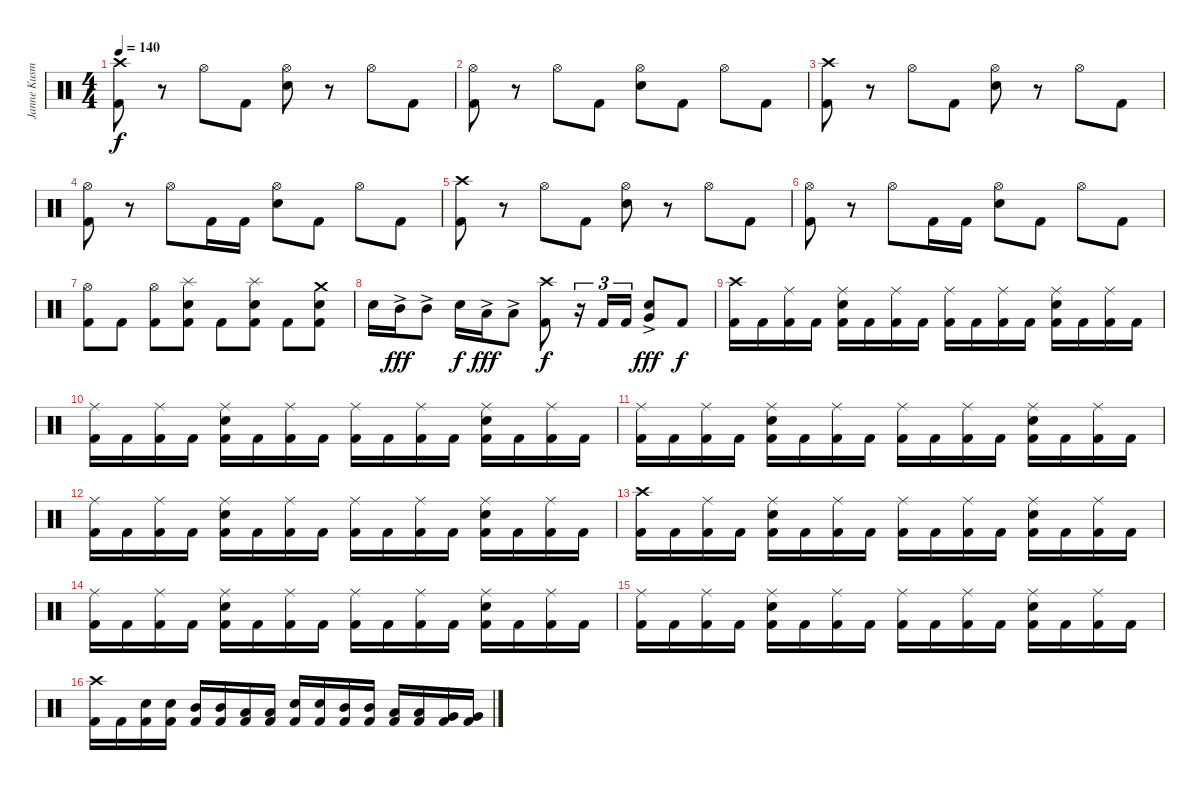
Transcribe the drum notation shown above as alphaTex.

\track ("Janne Kusmin" "Janne Kusm") {instrument percussion}
\staff {score}
\articulation defaults
\ts (4 4)
\tempo 140
\clef neutral
\ks c
("Crash high (hit)" "Kick (hit) 2").8{dy f} r.8 "Hi-Hat (open)".8 "Kick (hit) 2".8 ("Hi-Hat (open)" "Electric Snare (hit)").8 r.8 "Hi-Hat (open)".8 "Kick (hit) 2".8 |
("Hi-Hat (open)" "Kick (hit) 2").8 r.8 "Hi-Hat (open)".8 "Kick (hit) 2".8 ("Hi-Hat (open)" "Electric Snare (hit)").8 "Kick (hit) 2".8 "Hi-Hat (open)".8 "Kick (hit) 2".8 |
("Crash high (hit)" "Kick (hit) 2").8 r.8 "Hi-Hat (open)".8 "Kick (hit) 2".8 ("Hi-Hat (open)" "Electric Snare (hit)").8 r.8 "Hi-Hat (open)".8 "Kick (hit) 2".8 |
("Hi-Hat (open)" "Kick (hit) 2").8 r.8 "Hi-Hat (open)".8 "Kick (hit) 2".16 "Kick (hit) 2".16 ("Hi-Hat (open)" "Electric Snare (hit)").8 "Kick (hit) 2".8 "Hi-Hat (open)".8 "Kick (hit) 2".8 |
("Crash high (hit)" "Kick (hit) 2").8 r.8 "Hi-Hat (open)".8 "Kick (hit) 2".8 ("Hi-Hat (open)" "Electric Snare (hit)").8 r.8 "Hi-Hat (open)".8 "Kick (hit) 2".8 |
("Hi-Hat (open)" "Kick (hit) 2").8 r.8 "Hi-Hat (open)".8 "Kick (hit) 2".16 "Kick (hit) 2".16 ("Hi-Hat (open)" "Electric Snare (hit)").8 "Kick (hit) 2".8 "Hi-Hat (open)".8 "Kick (hit) 2".8 |
("Hi-Hat (open)" "Kick (hit) 2").8 "Kick (hit) 2".8 ("Hi-Hat (open)" "Kick (hit) 2").8 ("Splash (hit)" "Electric Snare (hit)" "Kick (hit) 2").8 "Kick (hit) 2".8 ("Splash (hit)" "Electric Snare (hit)" "Kick (hit) 2").8 "Kick (hit) 2".8 ("Crash medium (hit)" "Electric Snare (hit)" "Kick (hit) 2").8 |
"Electric Snare (hit)".16 "Mid Tom (hit)"{ac}.16{dy fff} "Mid Tom (hit)"{ac}.8 "Electric Snare (hit)".16{dy f} "Low Tom (hit)"{ac}.16{dy fff} "Low Tom (hit)"{ac}.8 ("Crash high (hit)" "Kick (hit) 2").8{dy f} r.16{tu (3 2)} "Kick (hit) 2".16{tu (3 2)} "Kick (hit) 2".16{tu (3 2)} ("Very Low Tom (hit)"{ac} "Electric Snare (hit)").8{dy fff} "Kick (hit) 2".8{dy f} |
("Crash high (hit)" "Kick (hit) 2").16 "Kick (hit) 2".16 ("Ride (middle)" "Kick (hit) 2").16 "Kick (hit) 2".16 ("Ride (middle)" "Electric Snare (hit)" "Kick (hit) 2").16 "Kick (hit) 2".16 ("Ride (middle)" "Kick (hit) 2").16 "Kick (hit) 2".16 ("Ride (middle)" "Kick (hit) 2").16 "Kick (hit) 2".16 ("Ride (middle)" "Kick (hit) 2").16 "Kick (hit) 2".16 ("Ride (middle)" "Electric Snare (hit)" "Kick (hit) 2").16 "Kick (hit) 2".16 ("Ride (middle)" "Kick (hit) 2").16 "Kick (hit) 2".16 |
("Ride (middle)" "Kick (hit) 2").16 "Kick (hit) 2".16 ("Ride (middle)" "Kick (hit) 2").16 "Kick (hit) 2".16 ("Ride (middle)" "Electric Snare (hit)" "Kick (hit) 2").16 "Kick (hit) 2".16 ("Ride (middle)" "Kick (hit) 2").16 "Kick (hit) 2".16 ("Ride (middle)" "Kick (hit) 2").16 "Kick (hit) 2".16 ("Ride (middle)" "Kick (hit) 2").16 "Kick (hit) 2".16 ("Ride (middle)" "Electric Snare (hit)" "Kick (hit) 2").16 "Kick (hit) 2".16 ("Ride (middle)" "Kick (hit) 2").16 "Kick (hit) 2".16 |
("Ride (middle)" "Kick (hit) 2").16 "Kick (hit) 2".16 ("Ride (middle)" "Kick (hit) 2").16 "Kick (hit) 2".16 ("Ride (middle)" "Electric Snare (hit)" "Kick (hit) 2").16 "Kick (hit) 2".16 ("Ride (middle)" "Kick (hit) 2").16 "Kick (hit) 2".16 ("Ride (middle)" "Kick (hit) 2").16 "Kick (hit) 2".16 ("Ride (middle)" "Kick (hit) 2").16 "Kick (hit) 2".16 ("Ride (middle)" "Electric Snare (hit)" "Kick (hit) 2").16 "Kick (hit) 2".16 ("Ride (middle)" "Kick (hit) 2").16 "Kick (hit) 2".16 |
("Ride (middle)" "Kick (hit) 2").16 "Kick (hit) 2".16 ("Ride (middle)" "Kick (hit) 2").16 "Kick (hit) 2".16 ("Ride (middle)" "Electric Snare (hit)" "Kick (hit) 2").16 "Kick (hit) 2".16 ("Ride (middle)" "Kick (hit) 2").16 "Kick (hit) 2".16 ("Ride (middle)" "Kick (hit) 2").16 "Kick (hit) 2".16 ("Ride (middle)" "Kick (hit) 2").16 "Kick (hit) 2".16 ("Ride (middle)" "Electric Snare (hit)" "Kick (hit) 2").16 "Kick (hit) 2".16 ("Ride (middle)" "Kick (hit) 2").16 "Kick (hit) 2".16 |
("Crash high (hit)" "Kick (hit) 2").16 "Kick (hit) 2".16 ("Ride (middle)" "Kick (hit) 2").16 "Kick (hit) 2".16 ("Ride (middle)" "Electric Snare (hit)" "Kick (hit) 2").16 "Kick (hit) 2".16 ("Ride (middle)" "Kick (hit) 2").16 "Kick (hit) 2".16 ("Ride (middle)" "Kick (hit) 2").16 "Kick (hit) 2".16 ("Ride (middle)" "Kick (hit) 2").16 "Kick (hit) 2".16 ("Ride (middle)" "Electric Snare (hit)" "Kick (hit) 2").16 "Kick (hit) 2".16 ("Ride (middle)" "Kick (hit) 2").16 "Kick (hit) 2".16 |
("Ride (middle)" "Kick (hit) 2").16 "Kick (hit) 2".16 ("Ride (middle)" "Kick (hit) 2").16 "Kick (hit) 2".16 ("Ride (middle)" "Electric Snare (hit)" "Kick (hit) 2").16 "Kick (hit) 2".16 ("Ride (middle)" "Kick (hit) 2").16 "Kick (hit) 2".16 ("Ride (middle)" "Kick (hit) 2").16 "Kick (hit) 2".16 ("Ride (middle)" "Kick (hit) 2").16 "Kick (hit) 2".16 ("Ride (middle)" "Electric Snare (hit)" "Kick (hit) 2").16 "Kick (hit) 2".16 ("Ride (middle)" "Kick (hit) 2").16 "Kick (hit) 2".16 |
("Ride (middle)" "Kick (hit) 2").16 "Kick (hit) 2".16 ("Ride (middle)" "Kick (hit) 2").16 "Kick (hit) 2".16 ("Ride (middle)" "Electric Snare (hit)" "Kick (hit) 2").16 "Kick (hit) 2".16 ("Ride (middle)" "Kick (hit) 2").16 "Kick (hit) 2".16 ("Ride (middle)" "Kick (hit) 2").16 "Kick (hit) 2".16 ("Ride (middle)" "Kick (hit) 2").16 "Kick (hit) 2".16 ("Ride (middle)" "Electric Snare (hit)" "Kick (hit) 2").16 "Kick (hit) 2".16 ("Ride (middle)" "Kick (hit) 2").16 "Kick (hit) 2".16 |
\section ("" "")
("Crash high (hit)" "Kick (hit) 2").16 "Kick (hit) 2".16 ("Electric Snare (hit)" "Kick (hit) 2").16 ("Electric Snare (hit)" "Kick (hit) 2").16 ("Mid Tom (hit)" "Kick (hit) 2").16 ("Mid Tom (hit)" "Kick (hit) 2").16 ("Low Tom (hit)" "Kick (hit) 2").16 ("Low Tom (hit)" "Kick (hit) 2").16 ("Electric Snare (hit)" "Kick (hit) 2").16 ("Electric Snare (hit)" "Kick (hit) 2").16 ("Mid Tom (hit)" "Kick (hit) 2").16 ("Mid Tom (hit)" "Kick (hit) 2").16 ("Low Tom (hit)" "Kick (hit) 2").16 ("Low Tom (hit)" "Kick (hit) 2").16 ("Very Low Tom (hit)" "Kick (hit) 2").16 ("Very Low Tom (hit)" "Kick (hit) 2").16
